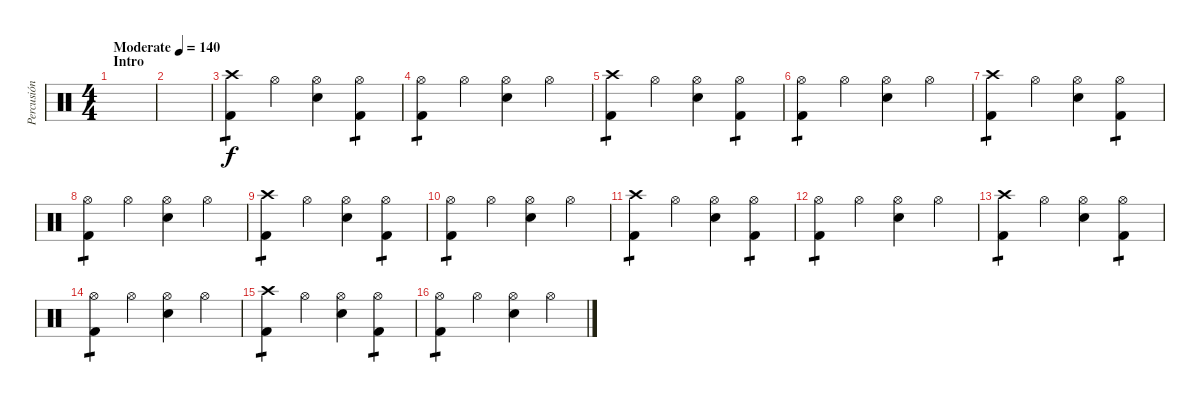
\track ("Percusión" "Percusión") {instrument percussion}
\staff {score}
\articulation defaults
\ts (4 4)
\section ("" "Intro")
\tempo (140 "Moderate")
\clef neutral
\ks c
|
|
("Crash high (hit)" "Kick (hit) 2").4{tp 1} "Hi-Hat (open)".4 ("Hi-Hat (open)" "Electric Snare (hit)").4 ("Hi-Hat (open)" "Kick (hit) 2").4{tp 1} |
("Hi-Hat (open)" "Kick (hit) 2").4{tp 1} "Hi-Hat (open)".4 ("Hi-Hat (open)" "Electric Snare (hit)").4 "Hi-Hat (open)".4 |
("Crash high (hit)" "Kick (hit) 2").4{tp 1} "Hi-Hat (open)".4 ("Hi-Hat (open)" "Electric Snare (hit)").4 ("Hi-Hat (open)" "Kick (hit) 2").4{tp 1} |
("Hi-Hat (open)" "Kick (hit) 2").4{tp 1} "Hi-Hat (open)".4 ("Hi-Hat (open)" "Electric Snare (hit)").4 "Hi-Hat (open)".4 |
("Crash high (hit)" "Kick (hit) 2").4{tp 1 volume 14} "Hi-Hat (open)".4 ("Hi-Hat (open)" "Electric Snare (hit)").4 ("Hi-Hat (open)" "Kick (hit) 2").4{tp 1} |
("Hi-Hat (open)" "Kick (hit) 2").4{tp 1} "Hi-Hat (open)".4 ("Hi-Hat (open)" "Electric Snare (hit)").4 "Hi-Hat (open)".4 |
("Crash high (hit)" "Kick (hit) 2").4{tp 1} "Hi-Hat (open)".4 ("Hi-Hat (open)" "Electric Snare (hit)").4 ("Hi-Hat (open)" "Kick (hit) 2").4{tp 1} |
("Hi-Hat (open)" "Kick (hit) 2").4{tp 1} "Hi-Hat (open)".4 ("Hi-Hat (open)" "Electric Snare (hit)").4 "Hi-Hat (open)".4 |
("Crash high (hit)" "Kick (hit) 2").4{tp 1} "Hi-Hat (open)".4 ("Hi-Hat (open)" "Electric Snare (hit)").4 ("Hi-Hat (open)" "Kick (hit) 2").4{tp 1} |
("Hi-Hat (open)" "Kick (hit) 2").4{tp 1} "Hi-Hat (open)".4 ("Hi-Hat (open)" "Electric Snare (hit)").4 "Hi-Hat (open)".4 |
("Crash high (hit)" "Kick (hit) 2").4{tp 1} "Hi-Hat (open)".4 ("Hi-Hat (open)" "Electric Snare (hit)").4 ("Hi-Hat (open)" "Kick (hit) 2").4{tp 1} |
("Hi-Hat (open)" "Kick (hit) 2").4{tp 1} "Hi-Hat (open)".4 ("Hi-Hat (open)" "Electric Snare (hit)").4 "Hi-Hat (open)".4 |
("Crash high (hit)" "Kick (hit) 2").4{tp 1} "Hi-Hat (open)".4 ("Hi-Hat (open)" "Electric Snare (hit)").4 ("Hi-Hat (open)" "Kick (hit) 2").4{tp 1} |
("Hi-Hat (open)" "Kick (hit) 2").4{tp 1} "Hi-Hat (open)".4 ("Hi-Hat (open)" "Electric Snare (hit)").4 "Hi-Hat (open)".4
